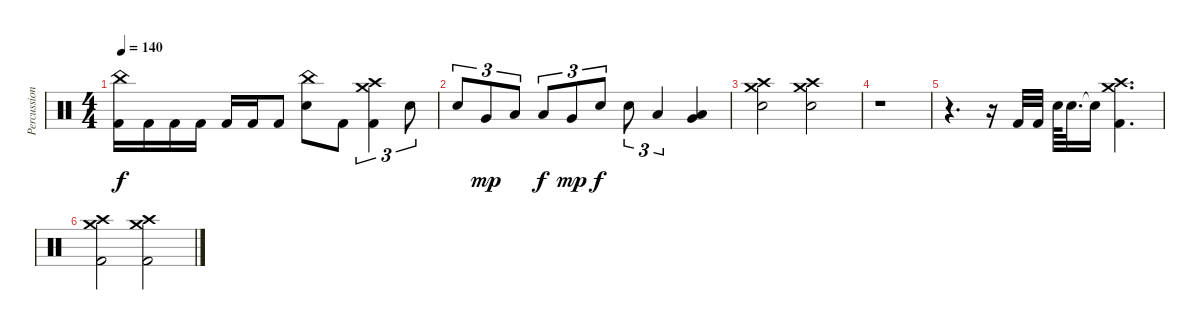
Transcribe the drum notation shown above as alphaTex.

\track ("Percussion" "Percussion") {instrument percussion}
\staff {score}
\articulation defaults
\ts (4 4)
\tempo 140
\clef neutral
\ks c
("China (hit)" "Kick (hit) 2").16{dy f} "Kick (hit) 2".16 "Kick (hit) 2".16 "Kick (hit) 2".16 "Kick (hit) 2".16 "Kick (hit) 2".16 "Kick (hit) 2".8 ("China (hit)" "Snare (hit) 2").8 "Kick (hit) 2".8 ("Crash medium (hit)" "Crash high (hit)" "Kick (hit) 2").4{tu (3 2)} "Snare (hit) 2".8{tu (3 2)} |
"Snare (hit) 2".8{tu (3 2)} "Very Low Tom (hit)".8{tu (3 2) dy mp} "Low Tom (hit)".8{tu (3 2)} "Low Floor Tom (hit)".8{tu (3 2) dy f} "Very Low Tom (hit)".8{tu (3 2) dy mp} "Snare (hit) 2".8{tu (3 2) dy f} "Snare (hit) 2".8{tu (3 2)} "Low Floor Tom (hit)".4{tu (3 2)} ("Very Low Tom (hit)" "Low Floor Tom (hit)").4 |
("Crash medium (hit)" "Crash high (hit)" "Snare (hit) 2").2 ("Crash high (hit)" "Crash medium (hit)" "Snare (hit) 2").2 |
r.1 |
r.4{d} r.16 "Kick (hit) 2".32 "Kick (hit) 2".32 "Electric Snare (hit)".64 "Electric Snare (hit)".32{d} "Snare (hit)"{t}.16 ("Crash high (hit)" "Crash medium (hit)" "Kick (hit) 2").4{d} |
("Crash medium (hit)" "Crash high (hit)" "Kick (hit) 2").2 ("Crash high (hit)" "Crash medium (hit)" "Kick (hit) 2").2
